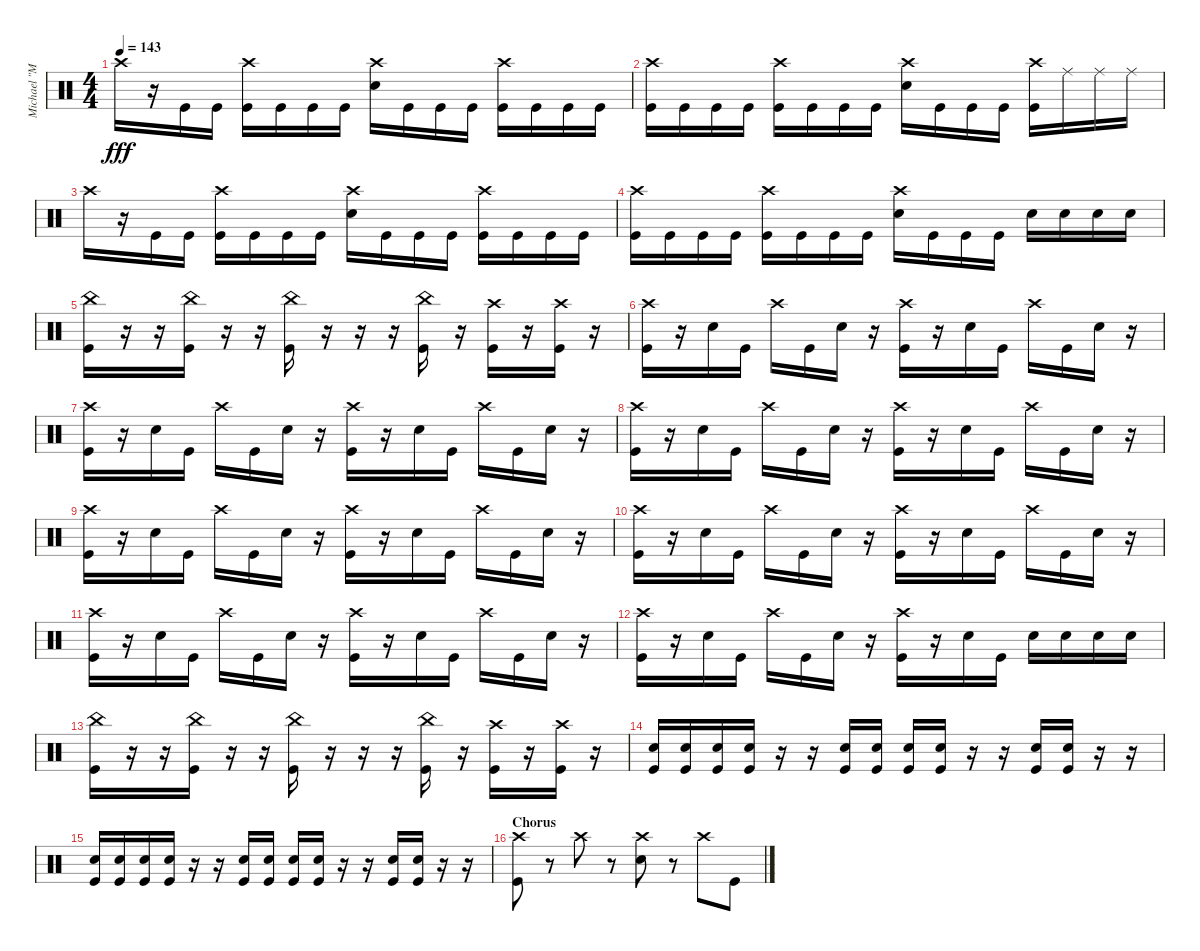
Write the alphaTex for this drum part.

\track ("Michael \"Moose\" Thomas" "Michael \"M") {instrument percussion}
\staff {score}
\articulation defaults
\ts (4 4)
\tempo 143
\clef neutral
\ks c "Crash high (hit)".16{dy fff}
r.16 "Kick (hit)".16 "Kick (hit)".16 ("Kick (hit)" "Crash high (hit)").16 "Kick (hit)".16 "Kick (hit)".16 "Kick (hit)".16 ("Snare (hit) 2" "Crash high (hit)").16 "Kick (hit)".16 "Kick (hit)".16 "Kick (hit)".16 ("Kick (hit)" "Crash high (hit)").16 "Kick (hit)".16 "Kick (hit)".16 "Kick (hit)".16 |
("Kick (hit)" "Crash high (hit)").16 "Kick (hit)".16 "Kick (hit)".16 "Kick (hit)".16 ("Kick (hit)" "Crash high (hit)").16 "Kick (hit)".16 "Kick (hit)".16 "Kick (hit)".16 ("Snare (hit) 2" "Crash high (hit)").16 "Kick (hit)".16 "Kick (hit)".16 "Kick (hit)".16 ("Kick (hit)" "Crash high (hit)").16 "Ride (middle)".16 "Ride (middle)".16 "Ride (middle)".16 |
"Crash high (hit)".16 r.16 "Kick (hit)".16 "Kick (hit)".16 ("Kick (hit)" "Crash high (hit)").16 "Kick (hit)".16 "Kick (hit)".16 "Kick (hit)".16 ("Snare (hit) 2" "Crash high (hit)").16 "Kick (hit)".16 "Kick (hit)".16 "Kick (hit)".16 ("Kick (hit)" "Crash high (hit)").16 "Kick (hit)".16 "Kick (hit)".16 "Kick (hit)".16 |
("Kick (hit)" "Crash high (hit)").16 "Kick (hit)".16 "Kick (hit)".16 "Kick (hit)".16 ("Kick (hit)" "Crash high (hit)").16 "Kick (hit)".16 "Kick (hit)".16 "Kick (hit)".16 ("Snare (hit) 2" "Crash high (hit)").16 "Kick (hit)".16 "Kick (hit)".16 "Kick (hit)".16 "Snare (hit) 2".16 "Snare (hit) 2".16 "Snare (hit) 2".16 "Snare (hit) 2".16 |
("Kick (hit)" "China (hit)").16 r.16 r.16 ("Kick (hit)" "China (hit)").16 r.16 r.16 ("Kick (hit)" "China (hit)").16 r.16 r.16 r.16 ("Kick (hit)" "China (hit)").16 r.16 ("Kick (hit)" "Crash high (hit)").16 r.16 ("Kick (hit)" "Crash high (hit)").16 r.16 |
("Kick (hit)" "Crash high (hit)").16 r.16 "Snare (hit) 2".16 "Kick (hit)".16 "Crash high (hit)".16 "Kick (hit)".16 "Snare (hit) 2".16 r.16 ("Kick (hit)" "Crash high (hit)").16 r.16 "Snare (hit) 2".16 "Kick (hit)".16 "Crash high (hit)".16 "Kick (hit)".16 "Snare (hit) 2".16 r.16 |
("Kick (hit)" "Crash high (hit)").16 r.16 "Snare (hit) 2".16 "Kick (hit)".16 "Crash high (hit)".16 "Kick (hit)".16 "Snare (hit) 2".16 r.16 ("Kick (hit)" "Crash high (hit)").16 r.16 "Snare (hit) 2".16 "Kick (hit)".16 "Crash high (hit)".16 "Kick (hit)".16 "Snare (hit) 2".16 r.16 |
("Kick (hit)" "Crash high (hit)").16 r.16 "Snare (hit) 2".16 "Kick (hit)".16 "Crash high (hit)".16 "Kick (hit)".16 "Snare (hit) 2".16 r.16 ("Kick (hit)" "Crash high (hit)").16 r.16 "Snare (hit) 2".16 "Kick (hit)".16 "Crash high (hit)".16 "Kick (hit)".16 "Snare (hit) 2".16 r.16 |
("Kick (hit)" "Crash high (hit)").16 r.16 "Snare (hit) 2".16 "Kick (hit)".16 "Crash high (hit)".16 "Kick (hit)".16 "Snare (hit) 2".16 r.16 ("Kick (hit)" "Crash high (hit)").16 r.16 "Snare (hit) 2".16 "Kick (hit)".16 "Crash high (hit)".16 "Kick (hit)".16 "Snare (hit) 2".16 r.16 |
("Kick (hit)" "Crash high (hit)").16 r.16 "Snare (hit) 2".16 "Kick (hit)".16 "Crash high (hit)".16 "Kick (hit)".16 "Snare (hit) 2".16 r.16 ("Kick (hit)" "Crash high (hit)").16 r.16 "Snare (hit) 2".16 "Kick (hit)".16 "Crash high (hit)".16 "Kick (hit)".16 "Snare (hit) 2".16 r.16 |
("Kick (hit)" "Crash high (hit)").16 r.16 "Snare (hit) 2".16 "Kick (hit)".16 "Crash high (hit)".16 "Kick (hit)".16 "Snare (hit) 2".16 r.16 ("Kick (hit)" "Crash high (hit)").16 r.16 "Snare (hit) 2".16 "Kick (hit)".16 "Crash high (hit)".16 "Kick (hit)".16 "Snare (hit) 2".16 r.16 |
("Kick (hit)" "Crash high (hit)").16 r.16 "Snare (hit) 2".16 "Kick (hit)".16 "Crash high (hit)".16 "Kick (hit)".16 "Snare (hit) 2".16 r.16 ("Kick (hit)" "Crash high (hit)").16 r.16 "Snare (hit) 2".16 "Kick (hit)".16 "Snare (hit) 2".16 "Snare (hit) 2".16 "Snare (hit) 2".16 "Snare (hit) 2".16 |
("Kick (hit)" "China (hit)").16 r.16 r.16 ("Kick (hit)" "China (hit)").16 r.16 r.16 ("Kick (hit)" "China (hit)").16 r.16 r.16 r.16 ("Kick (hit)" "China (hit)").16 r.16 ("Kick (hit)" "Crash high (hit)").16 r.16 ("Kick (hit)" "Crash high (hit)").16 r.16 |
("Kick (hit)" "Snare (hit) 2").16 ("Kick (hit)" "Snare (hit) 2").16 ("Kick (hit)" "Snare (hit) 2").16 ("Kick (hit)" "Snare (hit) 2").16 r.16 r.16 ("Kick (hit)" "Snare (hit) 2").16 ("Kick (hit)" "Snare (hit) 2").16 ("Kick (hit)" "Snare (hit) 2").16 ("Kick (hit)" "Snare (hit) 2").16 r.16 r.16 ("Kick (hit)" "Snare (hit) 2").16 ("Kick (hit)" "Snare (hit) 2").16 r.16 r.16 |
("Kick (hit)" "Snare (hit) 2").16 ("Kick (hit)" "Snare (hit) 2").16 ("Kick (hit)" "Snare (hit) 2").16 ("Kick (hit)" "Snare (hit) 2").16 r.16 r.16 ("Kick (hit)" "Snare (hit) 2").16 ("Kick (hit)" "Snare (hit) 2").16 ("Kick (hit)" "Snare (hit) 2").16 ("Kick (hit)" "Snare (hit) 2").16 r.16 r.16 ("Kick (hit)" "Snare (hit) 2").16 ("Kick (hit)" "Snare (hit) 2").16 r.16 r.16 |
\section ("" "Chorus")
("Kick (hit)" "Crash high (hit)").8 r.8 "Crash high (hit)".8 r.8 ("Snare (hit) 2" "Crash high (hit)").8 r.8 "Crash high (hit)".8 "Kick (hit)".8
